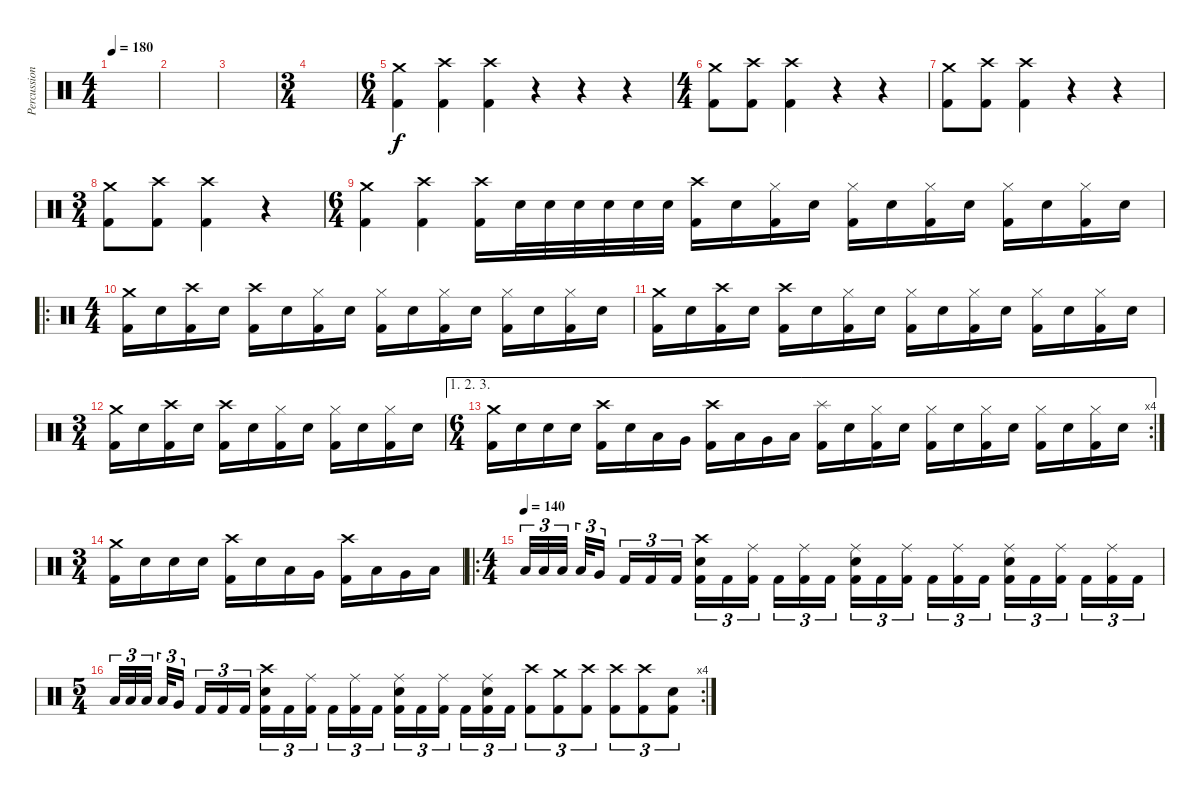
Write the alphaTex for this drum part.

\track ("Percussion" "Percussion") {instrument percussion}
\staff {score}
\articulation defaults
\ts (4 4)
\tempo 180
\clef neutral
\ks c
|
|
|
\ts (3 4)
|
\ts (6 4)
("Crash medium (hit)" "Kick (hit) 2").4 ("Crash high (hit)" "Kick (hit) 2").4 ("Crash high (hit)" "Kick (hit) 2").4 r.4{volume 0} r.4 r.4 |
\ts (4 4)
("Crash medium (hit)" "Kick (hit) 2").8{volume 13} ("Crash high (hit)" "Kick (hit) 2").8 ("Crash high (hit)" "Kick (hit) 2").4 r.4{volume 0} r.4 |
("Crash medium (hit)" "Kick (hit) 2").8{volume 13} ("Crash high (hit)" "Kick (hit) 2").8 ("Crash high (hit)" "Kick (hit) 2").4 r.4{volume 0} r.4 |
\ts (3 4)
("Crash medium (hit)" "Kick (hit) 2").8{volume 13} ("Crash high (hit)" "Kick (hit) 2").8 ("Crash high (hit)" "Kick (hit) 2").4 r.4{volume 0} |
\ts (6 4)
("Crash medium (hit)" "Kick (hit) 2").4{volume 13} ("Crash high (hit)" "Kick (hit) 2").4 ("Crash high (hit)" "Kick (hit) 2").16 "Snare (hit) 2".32 "Snare (hit) 2".32 "Snare (hit) 2".32 "Snare (hit) 2".32 "Snare (hit) 2".32 "Snare (hit) 2".32 ("Crash high (hit)" "Kick (hit) 2").16 "Snare (hit) 2".16 ("Hi-Hat (closed)" "Kick (hit) 2").16 "Snare (hit) 2".16 ("Hi-Hat (closed)" "Kick (hit) 2").16 "Snare (hit) 2".16 ("Hi-Hat (closed)" "Kick (hit) 2").16 "Snare (hit) 2".16 ("Hi-Hat (closed)" "Kick (hit) 2").16 "Snare (hit) 2".16 ("Hi-Hat (closed)" "Kick (hit) 2").16 "Snare (hit) 2".16 |
\ro
\ts (4 4)
("Crash medium (hit)" "Kick (hit) 2").16 "Snare (hit) 2".16 ("Crash high (hit)" "Kick (hit) 2").16 "Snare (hit) 2".16 ("Crash high (hit)" "Kick (hit) 2").16 "Snare (hit) 2".16 ("Hi-Hat (closed)" "Kick (hit) 2").16 "Snare (hit) 2".16 ("Hi-Hat (closed)" "Kick (hit) 2").16 "Snare (hit) 2".16 ("Hi-Hat (closed)" "Kick (hit) 2").16 "Snare (hit) 2".16 ("Hi-Hat (closed)" "Kick (hit) 2").16 "Snare (hit) 2".16 ("Hi-Hat (closed)" "Kick (hit) 2").16 "Snare (hit) 2".16 |
("Crash medium (hit)" "Kick (hit) 2").16 "Snare (hit) 2".16 ("Crash high (hit)" "Kick (hit) 2").16 "Snare (hit) 2".16 ("Crash high (hit)" "Kick (hit) 2").16 "Snare (hit) 2".16 ("Hi-Hat (closed)" "Kick (hit) 2").16 "Snare (hit) 2".16 ("Hi-Hat (closed)" "Kick (hit) 2").16 "Snare (hit) 2".16 ("Hi-Hat (closed)" "Kick (hit) 2").16 "Snare (hit) 2".16 ("Hi-Hat (closed)" "Kick (hit) 2").16 "Snare (hit) 2".16 ("Hi-Hat (closed)" "Kick (hit) 2").16 "Snare (hit) 2".16 |
\ts (3 4)
("Crash medium (hit)" "Kick (hit) 2").16 "Snare (hit) 2".16 ("Crash high (hit)" "Kick (hit) 2").16 "Snare (hit) 2".16 ("Crash high (hit)" "Kick (hit) 2").16 "Snare (hit) 2".16 ("Hi-Hat (closed)" "Kick (hit) 2").16 "Snare (hit) 2".16 ("Hi-Hat (closed)" "Kick (hit) 2").16 "Snare (hit) 2".16 ("Hi-Hat (closed)" "Kick (hit) 2").16 "Snare (hit) 2".16 |
\ae (1 2 3)
\rc 4
\ts (6 4)
("Crash medium (hit)" "Kick (hit) 2").16 "Snare (hit) 2".16 "Snare (hit) 2".16 "Snare (hit) 2".16 ("Crash high (hit)" "Kick (hit) 2").16 "Snare (hit) 2".16 "Low Tom (hit)".16 "Very Low Tom (hit)".16 ("Crash high (hit)" "Kick (hit) 2").16 "Low Tom (hit)".16 "Very Low Tom (hit)".16 "Low Floor Tom (hit)".16 ("Splash (hit)" "Kick (hit) 2").16 "Snare (hit) 2".16 ("Hi-Hat (closed)" "Kick (hit) 2").16 "Snare (hit) 2".16 ("Hi-Hat (closed)" "Kick (hit) 2").16 "Snare (hit) 2".16 ("Hi-Hat (closed)" "Kick (hit) 2").16 "Snare (hit) 2".16 ("Hi-Hat (closed)" "Kick (hit) 2").16 "Snare (hit) 2".16 ("Hi-Hat (closed)" "Kick (hit) 2").16 "Snare (hit) 2".16 |
\ts (3 4)
("Crash medium (hit)" "Kick (hit) 2").16 "Snare (hit) 2".16 "Snare (hit) 2".16 "Snare (hit) 2".16 ("Crash high (hit)" "Kick (hit) 2").16 "Snare (hit) 2".16 "Low Tom (hit)".16 "Very Low Tom (hit)".16 ("Crash high (hit)" "Kick (hit) 2").16 "Low Tom (hit)".16 "Very Low Tom (hit)".16 "Low Floor Tom (hit)".16 |
\ro
\ts (4 4)
\tempo (140)
"Low Tom (hit)".32{tu (3 2)} "Low Tom (hit)".32{tu (3 2)} "Low Tom (hit)".32{tu (3 2)} "Low Tom (hit)".32{tu (3 2)} "Very Low Tom (hit)".16{tu (3 2)} "Kick (hit) 2".16{tu (3 2)} "Kick (hit) 2".16{tu (3 2)} "Kick (hit) 2".16{tu (3 2)} ("Crash high (hit)" "Snare (hit) 2" "Kick (hit) 2").16{tu (3 2)} "Kick (hit) 2".16{tu (3 2)} ("Ride (middle)" "Kick (hit) 2").16{tu (3 2)} "Kick (hit) 2".16{tu (3 2)} ("Ride (middle)" "Kick (hit) 2").16{tu (3 2)} "Kick (hit) 2".16{tu (3 2)} ("Ride (middle)" "Snare (hit) 2" "Kick (hit) 2").16{tu (3 2)} "Kick (hit) 2".16{tu (3 2)} ("Ride (middle)" "Kick (hit) 2").16{tu (3 2)} "Kick (hit) 2".16{tu (3 2)} ("Ride (middle)" "Kick (hit) 2").16{tu (3 2)} "Kick (hit) 2".16{tu (3 2)} ("Ride (middle)" "Snare (hit) 2" "Kick (hit) 2").16{tu (3 2)} "Kick (hit) 2".16{tu (3 2)} ("Ride (middle)" "Kick (hit) 2").16{tu (3 2)} "Kick (hit) 2".16{tu (3 2)} ("Ride (middle)" "Kick (hit) 2").16{tu (3 2)} "Kick (hit) 2".16{tu (3 2)} |
\rc 4
\ts (5 4)
"Low Tom (hit)".32{tu (3 2)} "Low Tom (hit)".32{tu (3 2)} "Low Tom (hit)".32{tu (3 2)} "Low Tom (hit)".32{tu (3 2)} "Very Low Tom (hit)".16{tu (3 2)} "Kick (hit) 2".16{tu (3 2)} "Kick (hit) 2".16{tu (3 2)} "Kick (hit) 2".16{tu (3 2)} ("Crash high (hit)" "Snare (hit) 2" "Kick (hit) 2").16{tu (3 2)} "Kick (hit) 2".16{tu (3 2)} ("Ride (middle)" "Kick (hit) 2").16{tu (3 2)} "Kick (hit) 2".16{tu (3 2)} ("Ride (middle)" "Kick (hit) 2").16{tu (3 2)} "Kick (hit) 2".16{tu (3 2)} ("Ride (middle)" "Snare (hit) 2" "Kick (hit) 2").16{tu (3 2)} "Kick (hit) 2".16{tu (3 2)} ("Ride (middle)" "Kick (hit) 2").16{tu (3 2)} "Kick (hit) 2".16{tu (3 2)} ("Ride (middle)" "Snare (hit) 2" "Kick (hit) 2").16{tu (3 2)} "Kick (hit) 2".16{tu (3 2)} ("Crash high (hit)" "Kick (hit) 2").8{tu (3 2)} ("Crash medium (hit)" "Kick (hit) 2").8{tu (3 2)} ("Crash high (hit)" "Kick (hit) 2").8{tu (3 2)} ("Crash high (hit)" "Kick (hit) 2").8{tu (3 2)} ("Crash high (hit)" "Kick (hit) 2").8{tu (3 2)} ("Snare (hit) 2" "Kick (hit) 2").8{tu (3 2)}
